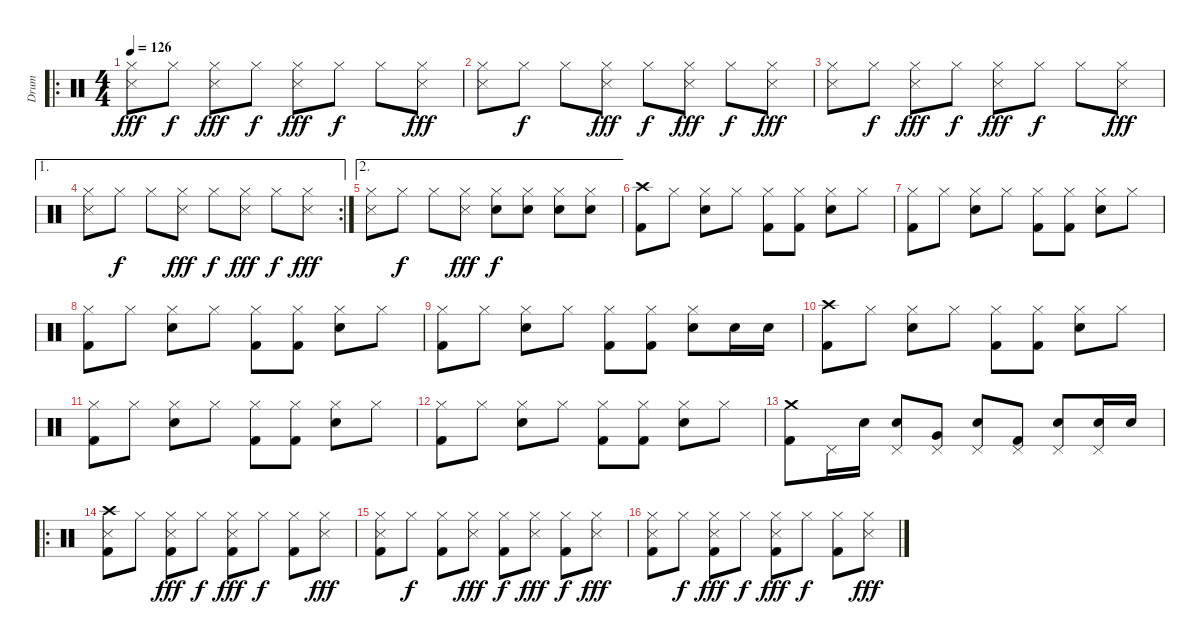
\track ("Drum" "Drum") {instrument percussion}
\staff {score}
\articulation defaults
\ro
\ts (4 4)
\tempo 126
\clef neutral
\ks c
("Snare (side stick) 3" "Hi-Hat (closed)").8{dy fff} "Hi-Hat (closed)".8{dy f} ("Snare (side stick) 3" "Hi-Hat (closed)").8{dy fff} "Hi-Hat (closed)".8{dy f} ("Snare (side stick) 3" "Hi-Hat (closed)").8{dy fff} "Hi-Hat (closed)".8{dy f} "Hi-Hat (closed)".8 ("Snare (side stick) 3" "Hi-Hat (closed)").8{dy fff} |
("Snare (side stick) 3" "Hi-Hat (closed)").8 "Hi-Hat (closed)".8{dy f} "Hi-Hat (closed)".8 ("Snare (side stick) 3" "Hi-Hat (closed)").8{dy fff} "Hi-Hat (closed)".8{dy f} ("Snare (side stick) 3" "Hi-Hat (closed)").8{dy fff} "Hi-Hat (closed)".8{dy f} ("Snare (side stick) 3" "Hi-Hat (closed)").8{dy fff} |
("Snare (side stick) 3" "Hi-Hat (closed)").8 "Hi-Hat (closed)".8{dy f} ("Snare (side stick) 3" "Hi-Hat (closed)").8{dy fff} "Hi-Hat (closed)".8{dy f} ("Snare (side stick) 3" "Hi-Hat (closed)").8{dy fff} "Hi-Hat (closed)".8{dy f} "Hi-Hat (closed)".8 ("Snare (side stick) 3" "Hi-Hat (closed)").8{dy fff} |
\ae 1
\rc 2
("Snare (side stick) 3" "Hi-Hat (closed)").8 "Hi-Hat (closed)".8{dy f} "Hi-Hat (closed)".8 ("Snare (side stick) 3" "Hi-Hat (closed)").8{dy fff} "Hi-Hat (closed)".8{dy f} ("Snare (side stick) 3" "Hi-Hat (closed)").8{dy fff} "Hi-Hat (closed)".8{dy f} ("Snare (side stick) 3" "Hi-Hat (closed)").8{dy fff} |
\ae 2
("Snare (side stick) 3" "Hi-Hat (closed)").8 "Hi-Hat (closed)".8{dy f} "Hi-Hat (closed)".8 ("Snare (side stick) 3" "Hi-Hat (closed)").8{dy fff} ("Electric Snare (hit)" "Hi-Hat (closed)").8{dy f} ("Electric Snare (hit)" "Hi-Hat (closed)").8 ("Electric Snare (hit)" "Hi-Hat (closed)").8 ("Electric Snare (hit)" "Hi-Hat (closed)").8 |
("Crash high (hit)" "Kick (hit) 2").8 "Hi-Hat (closed)".8 ("Electric Snare (hit)" "Hi-Hat (closed)").8 "Hi-Hat (closed)".8 ("Hi-Hat (closed)" "Kick (hit) 2").8 ("Hi-Hat (closed)" "Kick (hit) 2").8 ("Electric Snare (hit)" "Hi-Hat (closed)").8 "Hi-Hat (closed)".8 |
("Hi-Hat (closed)" "Kick (hit) 2").8 "Hi-Hat (closed)".8 ("Electric Snare (hit)" "Hi-Hat (closed)").8 "Hi-Hat (closed)".8 ("Hi-Hat (closed)" "Kick (hit) 2").8 ("Hi-Hat (closed)" "Kick (hit) 2").8 ("Electric Snare (hit)" "Hi-Hat (closed)").8 "Hi-Hat (closed)".8 |
("Hi-Hat (closed)" "Kick (hit) 2").8 "Hi-Hat (closed)".8 ("Electric Snare (hit)" "Hi-Hat (closed)").8 "Hi-Hat (closed)".8 ("Hi-Hat (closed)" "Kick (hit) 2").8 ("Hi-Hat (closed)" "Kick (hit) 2").8 ("Electric Snare (hit)" "Hi-Hat (closed)").8 "Hi-Hat (closed)".8 |
("Hi-Hat (closed)" "Kick (hit) 2").8 "Hi-Hat (closed)".8 ("Electric Snare (hit)" "Hi-Hat (closed)").8 "Hi-Hat (closed)".8 ("Hi-Hat (closed)" "Kick (hit) 2").8 ("Hi-Hat (closed)" "Kick (hit) 2").8 ("Electric Snare (hit)" "Hi-Hat (closed)").8 "Electric Snare (hit)".16 "Electric Snare (hit)".16 |
("Crash high (hit)" "Kick (hit) 2").8 "Hi-Hat (closed)".8 ("Electric Snare (hit)" "Hi-Hat (closed)").8 "Hi-Hat (closed)".8 ("Hi-Hat (closed)" "Kick (hit) 2").8 ("Hi-Hat (closed)" "Kick (hit) 2").8 ("Electric Snare (hit)" "Hi-Hat (closed)").8 "Hi-Hat (closed)".8 |
("Hi-Hat (closed)" "Kick (hit) 2").8 "Hi-Hat (closed)".8 ("Electric Snare (hit)" "Hi-Hat (closed)").8 "Hi-Hat (closed)".8 ("Hi-Hat (closed)" "Kick (hit) 2").8 ("Hi-Hat (closed)" "Kick (hit) 2").8 ("Electric Snare (hit)" "Hi-Hat (closed)").8 "Hi-Hat (closed)".8 |
("Hi-Hat (closed)" "Kick (hit) 2").8 "Hi-Hat (closed)".8 ("Electric Snare (hit)" "Hi-Hat (closed)").8 "Hi-Hat (closed)".8 ("Hi-Hat (closed)" "Kick (hit) 2").8 ("Hi-Hat (closed)" "Kick (hit) 2").8 ("Electric Snare (hit)" "Hi-Hat (closed)").8 "Hi-Hat (closed)".8 |
("Crash medium (hit)" "Kick (hit) 2").8 "Pedal Hi-Hat (hit)".16 "Electric Snare (hit)".16 ("Electric Snare (hit)" "Pedal Hi-Hat (hit)").8 ("Pedal Hi-Hat (hit)" "Very Low Tom (hit)").8 ("Electric Snare (hit)" "Pedal Hi-Hat (hit)").8 ("Pedal Hi-Hat (hit)" "Kick (hit) 2").8 ("Electric Snare (hit)" "Pedal Hi-Hat (hit)").8 ("Electric Snare (hit)" "Pedal Hi-Hat (hit)").16 "Electric Snare (hit)".16 |
\ro
("Crash high (hit)" "Snare (side stick) 3" "Kick (hit) 2").8 "Hi-Hat (closed)".8 ("Snare (side stick) 3" "Hi-Hat (closed)" "Kick (hit) 2").8{dy fff} "Hi-Hat (closed)".8{dy f} ("Snare (side stick) 3" "Hi-Hat (closed)" "Kick (hit) 2").8{dy fff} "Hi-Hat (closed)".8{dy f} ("Hi-Hat (closed)" "Kick (hit) 2").8 ("Snare (side stick) 3" "Hi-Hat (closed)").8{dy fff} |
("Snare (side stick) 3" "Hi-Hat (closed)" "Kick (hit) 2").8 "Hi-Hat (closed)".8{dy f} ("Hi-Hat (closed)" "Kick (hit) 2").8 ("Snare (side stick) 3" "Hi-Hat (closed)").8{dy fff} ("Hi-Hat (closed)" "Kick (hit) 2").8{dy f} ("Snare (side stick) 3" "Hi-Hat (closed)").8{dy fff} ("Hi-Hat (closed)" "Kick (hit) 2").8{dy f} ("Snare (side stick) 3" "Hi-Hat (closed)").8{dy fff} |
("Snare (side stick) 3" "Hi-Hat (closed)" "Kick (hit) 2").8 "Hi-Hat (closed)".8{dy f} ("Snare (side stick) 3" "Hi-Hat (closed)" "Kick (hit) 2").8{dy fff} "Hi-Hat (closed)".8{dy f} ("Snare (side stick) 3" "Hi-Hat (closed)" "Kick (hit) 2").8{dy fff} "Hi-Hat (closed)".8{dy f} ("Hi-Hat (closed)" "Kick (hit) 2").8 ("Snare (side stick) 3" "Hi-Hat (closed)").8{dy fff}
